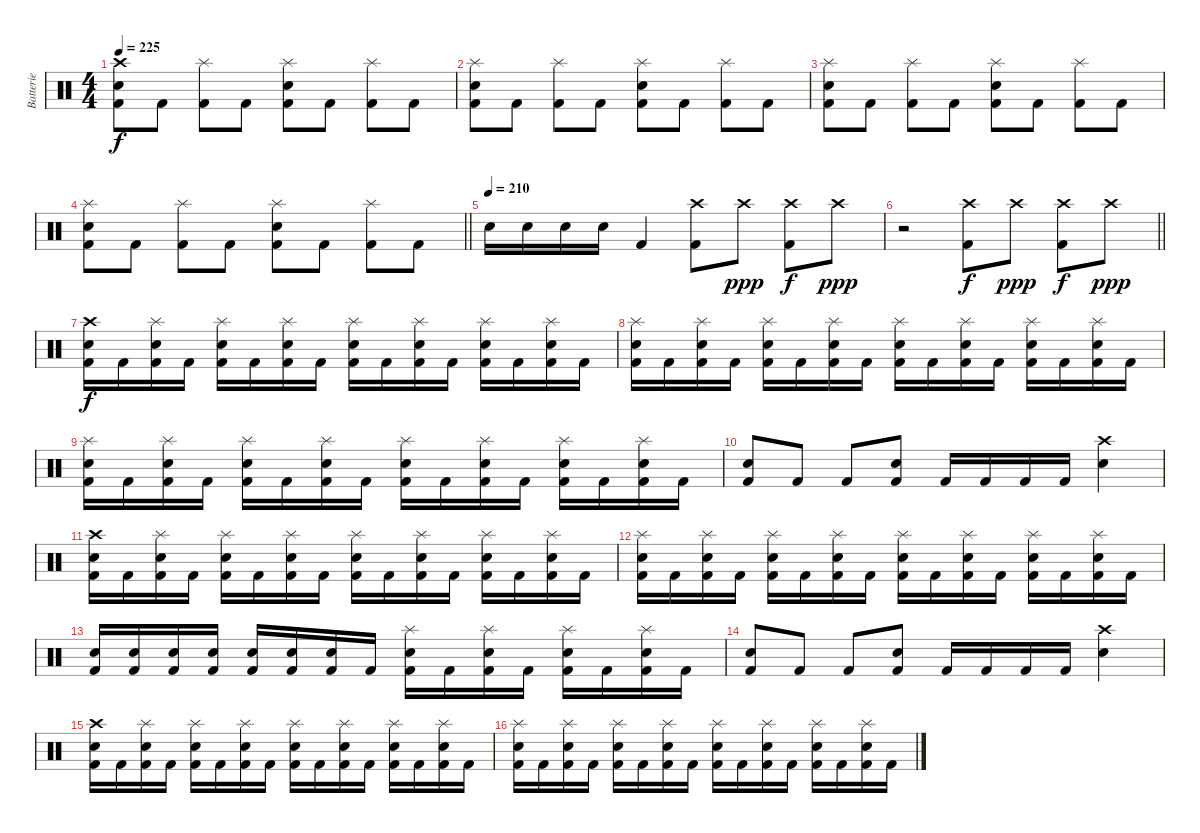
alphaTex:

\track ("Batterie" "Batterie") {instrument percussion}
\staff {score}
\articulation defaults
\ts (4 4)
\tempo 225
\clef neutral
\ks c
("Crash high (hit)" "Electric Snare (hit)" "Kick (hit) 2").8{dy f} "Kick (hit) 2".8 ("Splash (hit)" "Kick (hit) 2").8 "Kick (hit) 2".8 ("Splash (hit)" "Electric Snare (hit)" "Kick (hit) 2").8 "Kick (hit) 2".8 ("Splash (hit)" "Kick (hit) 2").8 "Kick (hit) 2".8 |
("Splash (hit)" "Electric Snare (hit)" "Kick (hit) 2").8 "Kick (hit) 2".8 ("Splash (hit)" "Kick (hit) 2").8 "Kick (hit) 2".8 ("Splash (hit)" "Electric Snare (hit)" "Kick (hit) 2").8 "Kick (hit) 2".8 ("Splash (hit)" "Kick (hit) 2").8 "Kick (hit) 2".8 |
("Splash (hit)" "Electric Snare (hit)" "Kick (hit) 2").8 "Kick (hit) 2".8 ("Splash (hit)" "Kick (hit) 2").8 "Kick (hit) 2".8 ("Splash (hit)" "Electric Snare (hit)" "Kick (hit) 2").8 "Kick (hit) 2".8 ("Splash (hit)" "Kick (hit) 2").8 "Kick (hit) 2".8 |
\barLineRight lightlight
("Splash (hit)" "Electric Snare (hit)" "Kick (hit) 2").8 "Kick (hit) 2".8 ("Splash (hit)" "Kick (hit) 2").8 "Kick (hit) 2".8 ("Splash (hit)" "Electric Snare (hit)" "Kick (hit) 2").8 "Kick (hit) 2".8 ("Splash (hit)" "Kick (hit) 2").8 "Kick (hit) 2".8 |
\tempo (210)
"Electric Snare (hit)".16 "Electric Snare (hit)".16 "Electric Snare (hit)".16 "Electric Snare (hit)".16 "Kick (hit) 2".4 ("Crash high (hit)" "Kick (hit) 2").8 "Crash high (hit)".8{dy ppp} ("Crash high (hit)" "Kick (hit) 2").8{dy f} "Crash high (hit)".8{dy ppp} |
\barLineRight lightlight
r.2 ("Crash high (hit)" "Kick (hit) 2").8{dy f} "Crash high (hit)".8{dy ppp} ("Crash high (hit)" "Kick (hit) 2").8{dy f} "Crash high (hit)".8{dy ppp} |
("Crash high (hit)" "Electric Snare (hit)" "Kick (hit) 2").16{dy f} "Kick (hit) 2".16 ("Splash (hit)" "Electric Snare (hit)" "Kick (hit) 2").16 "Kick (hit) 2".16 ("Splash (hit)" "Electric Snare (hit)" "Kick (hit) 2").16 "Kick (hit) 2".16 ("Splash (hit)" "Electric Snare (hit)" "Kick (hit) 2").16 "Kick (hit) 2".16 ("Splash (hit)" "Electric Snare (hit)" "Kick (hit) 2").16 "Kick (hit) 2".16 ("Splash (hit)" "Electric Snare (hit)" "Kick (hit) 2").16 "Kick (hit) 2".16 ("Splash (hit)" "Electric Snare (hit)" "Kick (hit) 2").16 "Kick (hit) 2".16 ("Splash (hit)" "Electric Snare (hit)" "Kick (hit) 2").16 "Kick (hit) 2".16 |
("Splash (hit)" "Electric Snare (hit)" "Kick (hit) 2").16 "Kick (hit) 2".16 ("Splash (hit)" "Electric Snare (hit)" "Kick (hit) 2").16 "Kick (hit) 2".16 ("Splash (hit)" "Electric Snare (hit)" "Kick (hit) 2").16 "Kick (hit) 2".16 ("Splash (hit)" "Electric Snare (hit)" "Kick (hit) 2").16 "Kick (hit) 2".16 ("Splash (hit)" "Electric Snare (hit)" "Kick (hit) 2").16 "Kick (hit) 2".16 ("Splash (hit)" "Electric Snare (hit)" "Kick (hit) 2").16 "Kick (hit) 2".16 ("Splash (hit)" "Electric Snare (hit)" "Kick (hit) 2").16 "Kick (hit) 2".16 ("Splash (hit)" "Electric Snare (hit)" "Kick (hit) 2").16 "Kick (hit) 2".16 |
("Splash (hit)" "Electric Snare (hit)" "Kick (hit) 2").16 "Kick (hit) 2".16 ("Splash (hit)" "Electric Snare (hit)" "Kick (hit) 2").16 "Kick (hit) 2".16 ("Splash (hit)" "Electric Snare (hit)" "Kick (hit) 2").16 "Kick (hit) 2".16 ("Splash (hit)" "Electric Snare (hit)" "Kick (hit) 2").16 "Kick (hit) 2".16 ("Splash (hit)" "Electric Snare (hit)" "Kick (hit) 2").16 "Kick (hit) 2".16 ("Splash (hit)" "Electric Snare (hit)" "Kick (hit) 2").16 "Kick (hit) 2".16 ("Splash (hit)" "Electric Snare (hit)" "Kick (hit) 2").16 "Kick (hit) 2".16 ("Splash (hit)" "Electric Snare (hit)" "Kick (hit) 2").16 "Kick (hit) 2".16 |
("Electric Snare (hit)" "Kick (hit) 2").8 "Kick (hit) 2".8 "Kick (hit) 2".8 ("Electric Snare (hit)" "Kick (hit) 2").8 "Kick (hit) 2".16 "Kick (hit) 2".16 "Kick (hit) 2".16 "Kick (hit) 2".16 ("Crash high (hit)" "Electric Snare (hit)").4 |
("Crash high (hit)" "Electric Snare (hit)" "Kick (hit) 2").16 "Kick (hit) 2".16 ("Splash (hit)" "Electric Snare (hit)" "Kick (hit) 2").16 "Kick (hit) 2".16 ("Splash (hit)" "Electric Snare (hit)" "Kick (hit) 2").16 "Kick (hit) 2".16 ("Splash (hit)" "Electric Snare (hit)" "Kick (hit) 2").16 "Kick (hit) 2".16 ("Splash (hit)" "Electric Snare (hit)" "Kick (hit) 2").16 "Kick (hit) 2".16 ("Splash (hit)" "Electric Snare (hit)" "Kick (hit) 2").16 "Kick (hit) 2".16 ("Splash (hit)" "Electric Snare (hit)" "Kick (hit) 2").16 "Kick (hit) 2".16 ("Splash (hit)" "Electric Snare (hit)" "Kick (hit) 2").16 "Kick (hit) 2".16 |
("Splash (hit)" "Electric Snare (hit)" "Kick (hit) 2").16 "Kick (hit) 2".16 ("Splash (hit)" "Electric Snare (hit)" "Kick (hit) 2").16 "Kick (hit) 2".16 ("Splash (hit)" "Electric Snare (hit)" "Kick (hit) 2").16 "Kick (hit) 2".16 ("Splash (hit)" "Electric Snare (hit)" "Kick (hit) 2").16 "Kick (hit) 2".16 ("Splash (hit)" "Electric Snare (hit)" "Kick (hit) 2").16 "Kick (hit) 2".16 ("Splash (hit)" "Electric Snare (hit)" "Kick (hit) 2").16 "Kick (hit) 2".16 ("Splash (hit)" "Electric Snare (hit)" "Kick (hit) 2").16 "Kick (hit) 2".16 ("Splash (hit)" "Electric Snare (hit)" "Kick (hit) 2").16 "Kick (hit) 2".16 |
("Electric Snare (hit)" "Kick (hit) 2").16 ("Electric Snare (hit)" "Kick (hit) 2").16 ("Electric Snare (hit)" "Kick (hit) 2").16 ("Electric Snare (hit)" "Kick (hit) 2").16 ("Electric Snare (hit)" "Kick (hit) 2").16 ("Electric Snare (hit)" "Kick (hit) 2").16 ("Electric Snare (hit)" "Kick (hit) 2").16 "Kick (hit) 2".16 ("Splash (hit)" "Electric Snare (hit)" "Kick (hit) 2").16 "Kick (hit) 2".16 ("Splash (hit)" "Electric Snare (hit)" "Kick (hit) 2").16 "Kick (hit) 2".16 ("Splash (hit)" "Electric Snare (hit)" "Kick (hit) 2").16 "Kick (hit) 2".16 ("Splash (hit)" "Electric Snare (hit)" "Kick (hit) 2").16 "Kick (hit) 2".16 |
("Electric Snare (hit)" "Kick (hit) 2").8 "Kick (hit) 2".8 "Kick (hit) 2".8 ("Electric Snare (hit)" "Kick (hit) 2").8 "Kick (hit) 2".16 "Kick (hit) 2".16 "Kick (hit) 2".16 "Kick (hit) 2".16 ("Crash high (hit)" "Electric Snare (hit)").4 |
("Crash high (hit)" "Electric Snare (hit)" "Kick (hit) 2").16 "Kick (hit) 2".16 ("Splash (hit)" "Electric Snare (hit)" "Kick (hit) 2").16 "Kick (hit) 2".16 ("Splash (hit)" "Electric Snare (hit)" "Kick (hit) 2").16 "Kick (hit) 2".16 ("Splash (hit)" "Electric Snare (hit)" "Kick (hit) 2").16 "Kick (hit) 2".16 ("Splash (hit)" "Electric Snare (hit)" "Kick (hit) 2").16 "Kick (hit) 2".16 ("Splash (hit)" "Electric Snare (hit)" "Kick (hit) 2").16 "Kick (hit) 2".16 ("Splash (hit)" "Electric Snare (hit)" "Kick (hit) 2").16 "Kick (hit) 2".16 ("Splash (hit)" "Electric Snare (hit)" "Kick (hit) 2").16 "Kick (hit) 2".16 |
("Splash (hit)" "Electric Snare (hit)" "Kick (hit) 2").16 "Kick (hit) 2".16 ("Splash (hit)" "Electric Snare (hit)" "Kick (hit) 2").16 "Kick (hit) 2".16 ("Splash (hit)" "Electric Snare (hit)" "Kick (hit) 2").16 "Kick (hit) 2".16 ("Splash (hit)" "Electric Snare (hit)" "Kick (hit) 2").16 "Kick (hit) 2".16 ("Splash (hit)" "Electric Snare (hit)" "Kick (hit) 2").16 "Kick (hit) 2".16 ("Splash (hit)" "Electric Snare (hit)" "Kick (hit) 2").16 "Kick (hit) 2".16 ("Splash (hit)" "Electric Snare (hit)" "Kick (hit) 2").16 "Kick (hit) 2".16 ("Splash (hit)" "Electric Snare (hit)" "Kick (hit) 2").16 "Kick (hit) 2".16
